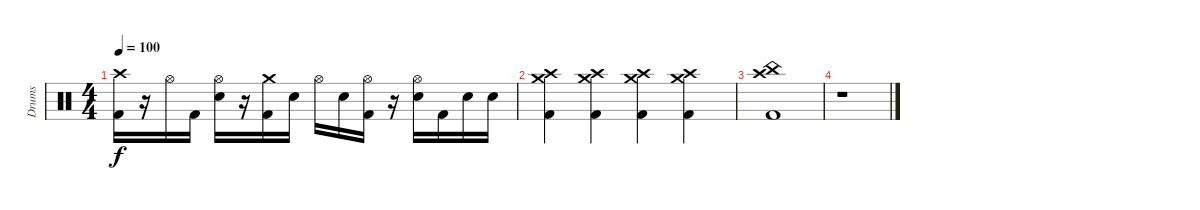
\track ("Drums" "Drums") {instrument percussion}
\staff {score}
\articulation defaults
\ts (4 4)
\tempo 100
\clef neutral
\ks c
("Crash high (hit)" "Kick (hit) 2").16{dy f} r.16 "Hi-Hat (open)".16 "Kick (hit) 2".16 ("Hi-Hat (open)" "Electric Snare (hit)").16 r.16 ("Crash medium (hit)" "Kick (hit) 2").16 "Electric Snare (hit)".16 "Hi-Hat (open)".16 "Electric Snare (hit)".16 ("Hi-Hat (open)" "Kick (hit) 2").16 r.16 ("Hi-Hat (open)" "Electric Snare (hit)").16 "Kick (hit) 2".16 "Electric Snare (hit)".16 "Electric Snare (hit)".16 |
\section ("" "")
("Crash medium (hit)" "Crash high (hit)" "Kick (hit) 2").4 ("Crash medium (hit)" "Crash high (hit)" "Kick (hit) 2").4 ("Crash medium (hit)" "Crash high (hit)" "Kick (hit) 2").4 ("Crash medium (hit)" "Crash high (hit)" "Kick (hit) 2").4 |
("China (hit)" "Crash high (hit)" "Kick (hit) 2").1 |
r.1
